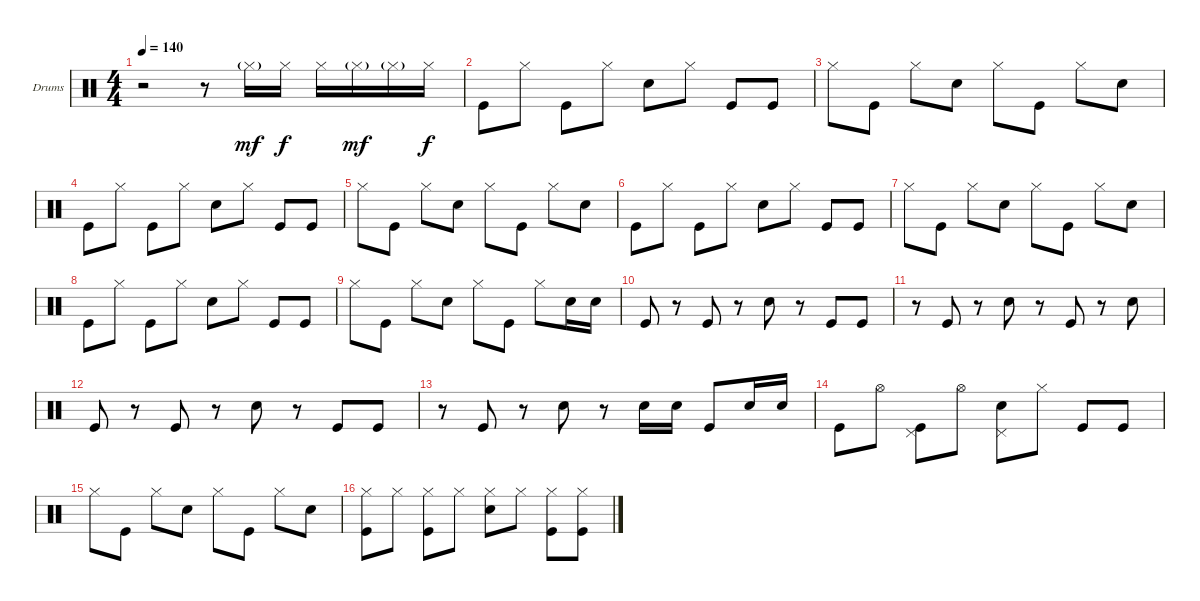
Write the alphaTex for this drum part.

\defaultSystemsLayout 4
\bracketExtendMode groupsimilarinstruments
\firstSystemTrackNameOrientation horizontal
\otherSystemsTrackNameOrientation horizontal
\track ("Drumkit" "Drums") {instrument percussion}
\staff {score}
\articulation defaults
\ts (4 4)
\tempo 140
\clef neutral
\ks c
r.2{dy f} r.8 "Hi-Hat (closed)"{g}.16{dy mf} "Hi-Hat (closed)".16{dy f} "Hi-Hat (closed)".16 "Hi-Hat (closed)"{g}.16{dy mf} "Hi-Hat (closed)"{g}.16 "Hi-Hat (closed)".16{dy f} |
"Kick (hit)".8 "Hi-Hat (closed)".8 "Kick (hit)".8 "Hi-Hat (closed)".8 "Snare (hit) 2".8 "Hi-Hat (closed)".8 "Kick (hit)".8 "Kick (hit)".8 |
"Hi-Hat (closed)".8 "Kick (hit)".8 "Hi-Hat (closed)".8 "Snare (hit) 2".8 "Hi-Hat (closed)".8 "Kick (hit)".8 "Hi-Hat (closed)".8 "Snare (hit) 2".8 |
"Kick (hit)".8 "Hi-Hat (closed)".8 "Kick (hit)".8 "Hi-Hat (closed)".8 "Snare (hit) 2".8 "Hi-Hat (closed)".8 "Kick (hit)".8 "Kick (hit)".8 |
"Hi-Hat (closed)".8 "Kick (hit)".8 "Hi-Hat (closed)".8 "Snare (hit) 2".8 "Hi-Hat (closed)".8 "Kick (hit)".8 "Hi-Hat (closed)".8 "Snare (hit) 2".8 |
"Kick (hit)".8 "Hi-Hat (closed)".8 "Kick (hit)".8 "Hi-Hat (closed)".8 "Snare (hit) 2".8 "Hi-Hat (closed)".8 "Kick (hit)".8 "Kick (hit)".8 |
"Hi-Hat (closed)".8 "Kick (hit)".8 "Hi-Hat (closed)".8 "Snare (hit) 2".8 "Hi-Hat (closed)".8 "Kick (hit)".8 "Hi-Hat (closed)".8 "Snare (hit) 2".8 |
"Kick (hit)".8 "Hi-Hat (closed)".8 "Kick (hit)".8 "Hi-Hat (closed)".8 "Snare (hit) 2".8 "Hi-Hat (closed)".8 "Kick (hit)".8 "Kick (hit)".8 |
"Hi-Hat (closed)".8 "Kick (hit)".8 "Hi-Hat (closed)".8 "Snare (hit) 2".8 "Hi-Hat (closed)".8 "Kick (hit)".8 "Hi-Hat (closed)".8 "Snare (hit) 2".16 "Snare (hit) 2".16 |
"Kick (hit)".8 r.8 "Kick (hit)".8 r.8 "Snare (hit) 2".8 r.8 "Kick (hit)".8 "Kick (hit)".8 |
r.8 "Kick (hit)".8 r.8 "Snare (hit) 2".8 r.8 "Kick (hit)".8 r.8 "Snare (hit) 2".8 |
"Kick (hit)".8 r.8 "Kick (hit)".8 r.8 "Snare (hit) 2".8 r.8 "Kick (hit)".8 "Kick (hit)".8 |
r.8 "Kick (hit)".8 r.8 "Snare (hit) 2".8 r.8 "Snare (hit) 2".16 "Snare (hit) 2".16 "Kick (hit)".8 "Snare (hit) 2".16 "Snare (hit) 2".16 |
"Kick (hit)".8 "Hi-Hat (open)".8 ("Pedal Hi-Hat (hit)" "Kick (hit)").8 "Hi-Hat (open)".8 ("Pedal Hi-Hat (hit)" "Snare (hit) 2").8 "Hi-Hat (closed)".8 "Kick (hit)".8 "Kick (hit)".8 |
"Hi-Hat (closed)".8 "Kick (hit)".8 "Hi-Hat (closed)".8 "Snare (hit) 2".8 "Hi-Hat (closed)".8 "Kick (hit)".8 "Hi-Hat (closed)".8 "Snare (hit) 2".8 |
("Hi-Hat (closed)" "Kick (hit)").8 "Hi-Hat (closed)".8 ("Hi-Hat (closed)" "Kick (hit)").8 "Hi-Hat (closed)".8 ("Hi-Hat (closed)" "Snare (hit) 2").8 "Hi-Hat (closed)".8 ("Hi-Hat (closed)" "Kick (hit)").8 ("Hi-Hat (closed)" "Kick (hit)").8
